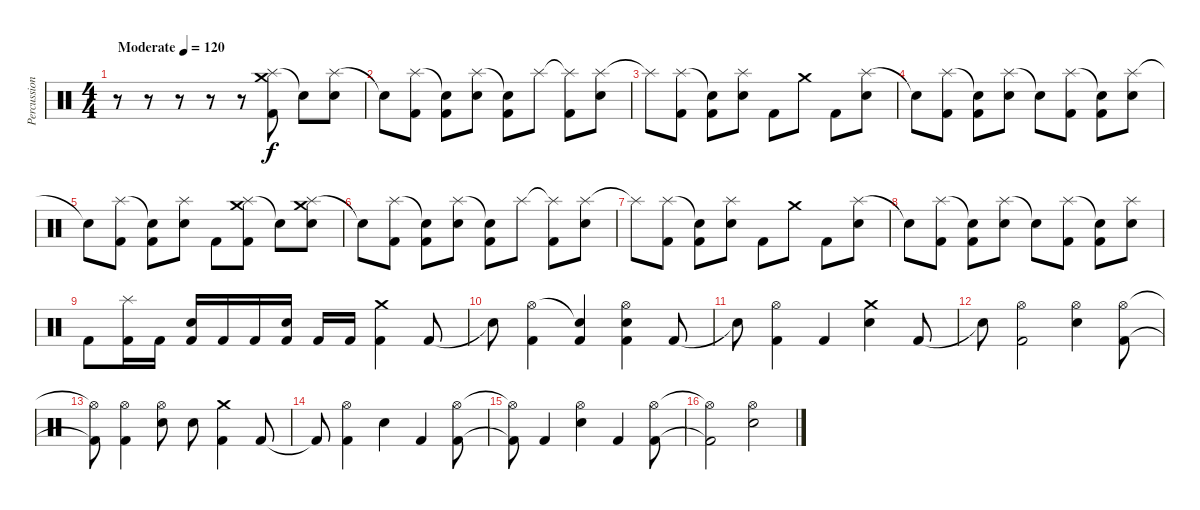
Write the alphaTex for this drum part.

\track ("Percussion" "Percussion") {instrument percussion}
\staff {score}
\articulation defaults
\ts (4 4)
\tempo (120 "Moderate")
\clef neutral
\ks c
r.8{dy f} r.8 r.8 r.8 r.8 ("Splash (hit)" "Crash medium (hit)" "Kick (hit) 2").8 "Snare (hit)"{t}.8 ("Splash (hit)" "Electric Snare (hit)").8 |
"Snare (hit)"{t}.8 ("Splash (hit)" "Kick (hit) 2").8 ("Snare (hit)"{t} "Kick (hit) 2").8 ("Splash (hit)" "Electric Snare (hit)").8 ("Snare (hit)"{t} "Kick (hit) 2").8 "Splash (hit)".8 ("Splash (hit)"{t} "Kick (hit) 2").8 ("Splash (hit)" "Electric Snare (hit)").8 |
"Splash (hit)"{t}.8 ("Splash (hit)" "Kick (hit) 2").8 ("Snare (hit)"{t} "Kick (hit) 2").8 ("Splash (hit)" "Electric Snare (hit)").8 "Kick (hit) 2".8 "Crash medium (hit)".8 "Kick (hit) 2".8 ("Splash (hit)" "Electric Snare (hit)").8 |
"Snare (hit)"{t}.8 ("Splash (hit)" "Kick (hit) 2").8 ("Snare (hit)"{t} "Kick (hit) 2").8 ("Splash (hit)" "Electric Snare (hit)").8 "Snare (hit)"{t}.8 ("Splash (hit)" "Kick (hit) 2").8 ("Snare (hit)"{t} "Kick (hit) 2").8 ("Splash (hit)" "Electric Snare (hit)").8 |
"Snare (hit)"{t}.8 ("Splash (hit)" "Kick (hit) 2").8 ("Snare (hit)"{t} "Kick (hit) 2").8 ("Splash (hit)" "Electric Snare (hit)").8 "Kick (hit) 2".8 ("Splash (hit)" "Crash medium (hit)" "Kick (hit) 2").8 "Snare (hit)"{t}.8 ("Splash (hit)" "Crash medium (hit)" "Electric Snare (hit)").8 |
"Snare (hit)"{t}.8 ("Splash (hit)" "Kick (hit) 2").8 ("Snare (hit)"{t} "Kick (hit) 2").8 ("Splash (hit)" "Electric Snare (hit)").8 ("Snare (hit)"{t} "Kick (hit) 2").8 "Splash (hit)".8 ("Splash (hit)"{t} "Kick (hit) 2").8 ("Splash (hit)" "Electric Snare (hit)").8 |
"Splash (hit)"{t}.8 ("Splash (hit)" "Kick (hit) 2").8 ("Snare (hit)"{t} "Kick (hit) 2").8 ("Splash (hit)" "Electric Snare (hit)").8 "Kick (hit) 2".8 "Crash medium (hit)".8 "Kick (hit) 2".8 ("Splash (hit)" "Electric Snare (hit)").8 |
"Snare (hit)"{t}.8 ("Splash (hit)" "Kick (hit) 2").8 ("Snare (hit)"{t} "Kick (hit) 2").8 ("Splash (hit)" "Electric Snare (hit)").8 "Snare (hit)"{t}.8 ("Splash (hit)" "Kick (hit) 2").8 ("Snare (hit)"{t} "Kick (hit) 2").8 ("Splash (hit)" "Electric Snare (hit)").8 |
"Kick (hit) 2".8 ("Splash (hit)" "Kick (hit) 2").16 "Kick (hit) 2".16 ("Electric Snare (hit)" "Kick (hit) 2").16 "Kick (hit) 2".16 "Kick (hit) 2".16 ("Electric Snare (hit)" "Kick (hit) 2").16 "Kick (hit) 2".16 "Kick (hit) 2".16 ("Crash medium (hit)" "Kick (hit) 2").4 "Kick (hit) 2".8 |
"Snare (hit)"{t}.8 ("Hi-Hat (open)" "Kick (hit) 2").4 ("Snare (hit)"{t} "Kick (hit) 2").4 ("Hi-Hat (open)" "Electric Snare (hit)" "Kick (hit) 2").4 "Kick (hit) 2".8 |
"Snare (hit)"{t}.8 ("Hi-Hat (open)" "Kick (hit) 2").4 "Kick (hit) 2".4 ("Crash medium (hit)" "Electric Snare (hit)").4 "Kick (hit) 2".8 |
"Snare (hit)"{t}.8 ("Hi-Hat (open)" "Kick (hit) 2").2 ("Hi-Hat (open)" "Electric Snare (hit)").4 ("Hi-Hat (open)" "Kick (hit) 2").8 |
("Hi-Hat (open)"{t} "Kick (hit) 2"{t}).8 ("Hi-Hat (open)" "Kick (hit) 2").4 ("Hi-Hat (open)" "Electric Snare (hit)").8 "Electric Snare (hit)".8 ("Crash medium (hit)" "Kick (hit) 2").4 "Kick (hit) 2".8 |
"Kick (hit) 2"{t}.8 ("Hi-Hat (open)" "Kick (hit) 2").4 "Electric Snare (hit)".4 "Kick (hit) 2".4 ("Hi-Hat (open)" "Kick (hit) 2").8 |
("Hi-Hat (open)"{t} "Kick (hit) 2"{t}).8 "Kick (hit) 2".4 ("Hi-Hat (open)" "Electric Snare (hit)").4 "Kick (hit) 2".4 ("Hi-Hat (open)" "Kick (hit) 2").8 |
("Hi-Hat (open)"{t} "Kick (hit) 2"{t}).2 ("Hi-Hat (open)" "Electric Snare (hit)").2
